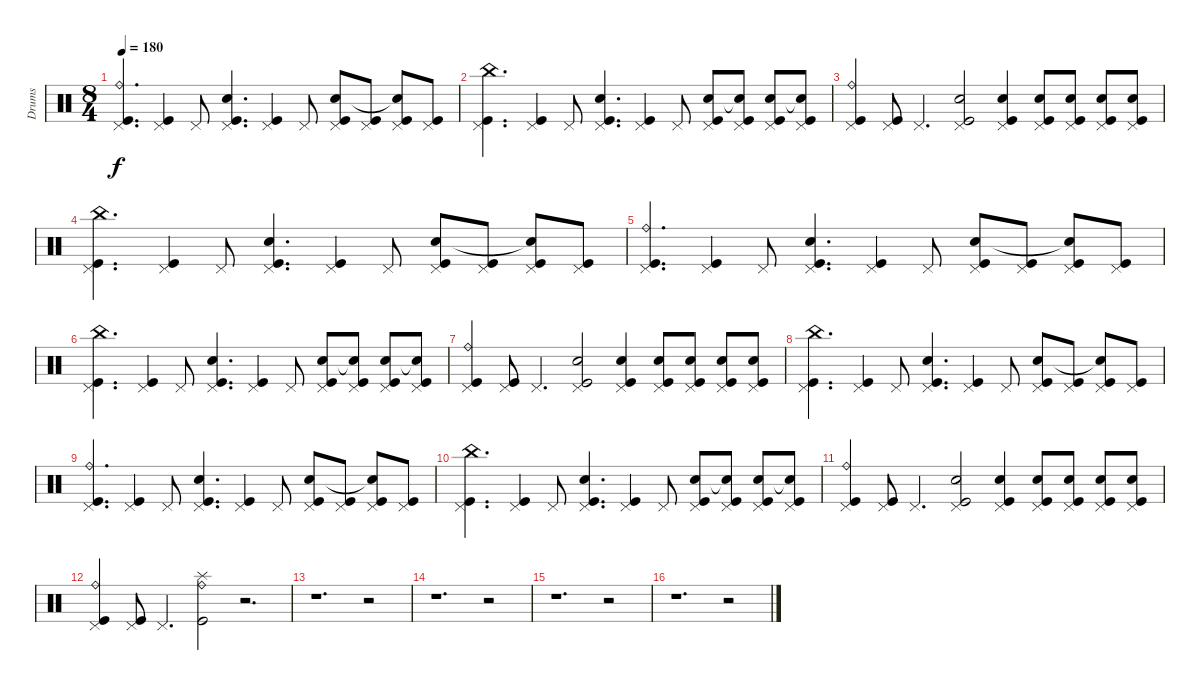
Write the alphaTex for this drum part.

\track ("Drums" "Drums") {instrument percussion}
\staff {score}
\articulation defaults
\ts (8 4)
\tempo 180
\clef neutral
\ks c
("Pedal Hi-Hat (hit)" "Kick (hit)" "Ride (bell)").4{d dy f} ("Pedal Hi-Hat (hit)" "Kick (hit)").4 "Pedal Hi-Hat (hit)".8 ("Pedal Hi-Hat (hit)" "Kick (hit)" "Electric Snare (hit)").4{d} ("Pedal Hi-Hat (hit)" "Kick (hit)").4 "Pedal Hi-Hat (hit)".8 ("Pedal Hi-Hat (hit)" "Kick (hit)" "Electric Snare (hit)").8 ("Pedal Hi-Hat (hit)" "Kick (hit)").8 ("Pedal Hi-Hat (hit)" "Kick (hit)" "Electric Snare (hit)"{t}).8 ("Pedal Hi-Hat (hit)" "Kick (hit)").8 |
("Pedal Hi-Hat (hit)" "Kick (hit)" "China (hit)").4{d} ("Pedal Hi-Hat (hit)" "Kick (hit)").4 "Pedal Hi-Hat (hit)".8 ("Pedal Hi-Hat (hit)" "Kick (hit)" "Electric Snare (hit)").4{d} ("Pedal Hi-Hat (hit)" "Kick (hit)").4 "Pedal Hi-Hat (hit)".8 ("Pedal Hi-Hat (hit)" "Kick (hit)" "Electric Snare (hit)").8 ("Pedal Hi-Hat (hit)" "Kick (hit)" "Electric Snare (hit)"{t}).8 ("Pedal Hi-Hat (hit)" "Kick (hit)" "Electric Snare (hit)").8 ("Pedal Hi-Hat (hit)" "Kick (hit)" "Electric Snare (hit)"{t}).8 |
("Pedal Hi-Hat (hit)" "Kick (hit)" "Ride (bell)").4 ("Pedal Hi-Hat (hit)" "Kick (hit)").8 "Pedal Hi-Hat (hit)".4{d} ("Pedal Hi-Hat (hit)" "Kick (hit)" "Electric Snare (hit)").2 ("Pedal Hi-Hat (hit)" "Kick (hit)" "Electric Snare (hit)").4 ("Pedal Hi-Hat (hit)" "Kick (hit)" "Electric Snare (hit)").8 ("Pedal Hi-Hat (hit)" "Kick (hit)" "Electric Snare (hit)").8 ("Pedal Hi-Hat (hit)" "Kick (hit)" "Electric Snare (hit)").8 ("Pedal Hi-Hat (hit)" "Kick (hit)" "Electric Snare (hit)").8 |
("Pedal Hi-Hat (hit)" "Kick (hit)" "China (hit)").4{d} ("Pedal Hi-Hat (hit)" "Kick (hit)").4 "Pedal Hi-Hat (hit)".8 ("Pedal Hi-Hat (hit)" "Kick (hit)" "Electric Snare (hit)").4{d} ("Pedal Hi-Hat (hit)" "Kick (hit)").4 "Pedal Hi-Hat (hit)".8 ("Pedal Hi-Hat (hit)" "Kick (hit)" "Electric Snare (hit)").8 ("Pedal Hi-Hat (hit)" "Kick (hit)").8 ("Pedal Hi-Hat (hit)" "Kick (hit)" "Electric Snare (hit)"{t}).8 ("Pedal Hi-Hat (hit)" "Kick (hit)").8 |
("Pedal Hi-Hat (hit)" "Kick (hit)" "Ride (bell)").4{d} ("Pedal Hi-Hat (hit)" "Kick (hit)").4 "Pedal Hi-Hat (hit)".8 ("Pedal Hi-Hat (hit)" "Kick (hit)" "Electric Snare (hit)").4{d} ("Pedal Hi-Hat (hit)" "Kick (hit)").4 "Pedal Hi-Hat (hit)".8 ("Pedal Hi-Hat (hit)" "Kick (hit)" "Electric Snare (hit)").8 ("Pedal Hi-Hat (hit)" "Kick (hit)").8 ("Pedal Hi-Hat (hit)" "Kick (hit)" "Electric Snare (hit)"{t}).8 ("Pedal Hi-Hat (hit)" "Kick (hit)").8 |
("Pedal Hi-Hat (hit)" "Kick (hit)" "China (hit)").4{d} ("Pedal Hi-Hat (hit)" "Kick (hit)").4 "Pedal Hi-Hat (hit)".8 ("Pedal Hi-Hat (hit)" "Kick (hit)" "Electric Snare (hit)").4{d} ("Pedal Hi-Hat (hit)" "Kick (hit)").4 "Pedal Hi-Hat (hit)".8 ("Pedal Hi-Hat (hit)" "Kick (hit)" "Electric Snare (hit)").8 ("Pedal Hi-Hat (hit)" "Kick (hit)" "Electric Snare (hit)"{t}).8 ("Pedal Hi-Hat (hit)" "Kick (hit)" "Electric Snare (hit)").8 ("Pedal Hi-Hat (hit)" "Kick (hit)" "Electric Snare (hit)"{t}).8 |
("Pedal Hi-Hat (hit)" "Kick (hit)" "Ride (bell)").4 ("Pedal Hi-Hat (hit)" "Kick (hit)").8 "Pedal Hi-Hat (hit)".4{d} ("Pedal Hi-Hat (hit)" "Kick (hit)" "Electric Snare (hit)").2 ("Pedal Hi-Hat (hit)" "Kick (hit)" "Electric Snare (hit)").4 ("Pedal Hi-Hat (hit)" "Kick (hit)" "Electric Snare (hit)").8 ("Pedal Hi-Hat (hit)" "Kick (hit)" "Electric Snare (hit)").8 ("Pedal Hi-Hat (hit)" "Kick (hit)" "Electric Snare (hit)").8 ("Pedal Hi-Hat (hit)" "Kick (hit)" "Electric Snare (hit)").8 |
("Pedal Hi-Hat (hit)" "Kick (hit)" "China (hit)").4{d} ("Pedal Hi-Hat (hit)" "Kick (hit)").4 "Pedal Hi-Hat (hit)".8 ("Pedal Hi-Hat (hit)" "Kick (hit)" "Electric Snare (hit)").4{d} ("Pedal Hi-Hat (hit)" "Kick (hit)").4 "Pedal Hi-Hat (hit)".8 ("Pedal Hi-Hat (hit)" "Kick (hit)" "Electric Snare (hit)").8 ("Pedal Hi-Hat (hit)" "Kick (hit)").8 ("Pedal Hi-Hat (hit)" "Kick (hit)" "Electric Snare (hit)"{t}).8 ("Pedal Hi-Hat (hit)" "Kick (hit)").8 |
("Pedal Hi-Hat (hit)" "Kick (hit)" "Ride (bell)").4{d} ("Pedal Hi-Hat (hit)" "Kick (hit)").4 "Pedal Hi-Hat (hit)".8 ("Pedal Hi-Hat (hit)" "Kick (hit)" "Electric Snare (hit)").4{d} ("Pedal Hi-Hat (hit)" "Kick (hit)").4 "Pedal Hi-Hat (hit)".8 ("Pedal Hi-Hat (hit)" "Kick (hit)" "Electric Snare (hit)").8 ("Pedal Hi-Hat (hit)" "Kick (hit)").8 ("Pedal Hi-Hat (hit)" "Kick (hit)" "Electric Snare (hit)"{t}).8 ("Pedal Hi-Hat (hit)" "Kick (hit)").8 |
("Pedal Hi-Hat (hit)" "Kick (hit)" "China (hit)").4{d} ("Pedal Hi-Hat (hit)" "Kick (hit)").4 "Pedal Hi-Hat (hit)".8 ("Pedal Hi-Hat (hit)" "Kick (hit)" "Electric Snare (hit)").4{d} ("Pedal Hi-Hat (hit)" "Kick (hit)").4 "Pedal Hi-Hat (hit)".8 ("Pedal Hi-Hat (hit)" "Kick (hit)" "Electric Snare (hit)").8 ("Pedal Hi-Hat (hit)" "Kick (hit)" "Electric Snare (hit)"{t}).8 ("Pedal Hi-Hat (hit)" "Kick (hit)" "Electric Snare (hit)").8 ("Pedal Hi-Hat (hit)" "Kick (hit)" "Electric Snare (hit)"{t}).8 |
("Pedal Hi-Hat (hit)" "Kick (hit)" "Ride (bell)").4 ("Pedal Hi-Hat (hit)" "Kick (hit)").8 "Pedal Hi-Hat (hit)".4{d} ("Pedal Hi-Hat (hit)" "Kick (hit)" "Electric Snare (hit)").2 ("Pedal Hi-Hat (hit)" "Kick (hit)" "Electric Snare (hit)").4 ("Pedal Hi-Hat (hit)" "Kick (hit)" "Electric Snare (hit)").8 ("Pedal Hi-Hat (hit)" "Kick (hit)" "Electric Snare (hit)").8 ("Pedal Hi-Hat (hit)" "Kick (hit)" "Electric Snare (hit)").8 ("Pedal Hi-Hat (hit)" "Kick (hit)" "Electric Snare (hit)").8 |
("Pedal Hi-Hat (hit)" "Kick (hit)" "Ride (bell)").4 ("Pedal Hi-Hat (hit)" "Kick (hit)").8 "Pedal Hi-Hat (hit)".4{d} ("Ride (bell)" "Kick (hit)" "Splash (hit)").2 r.2{d} |
r.1{d} r.2 |
r.1{d} r.2 |
r.1{d} r.2 |
r.1{d} r.2
